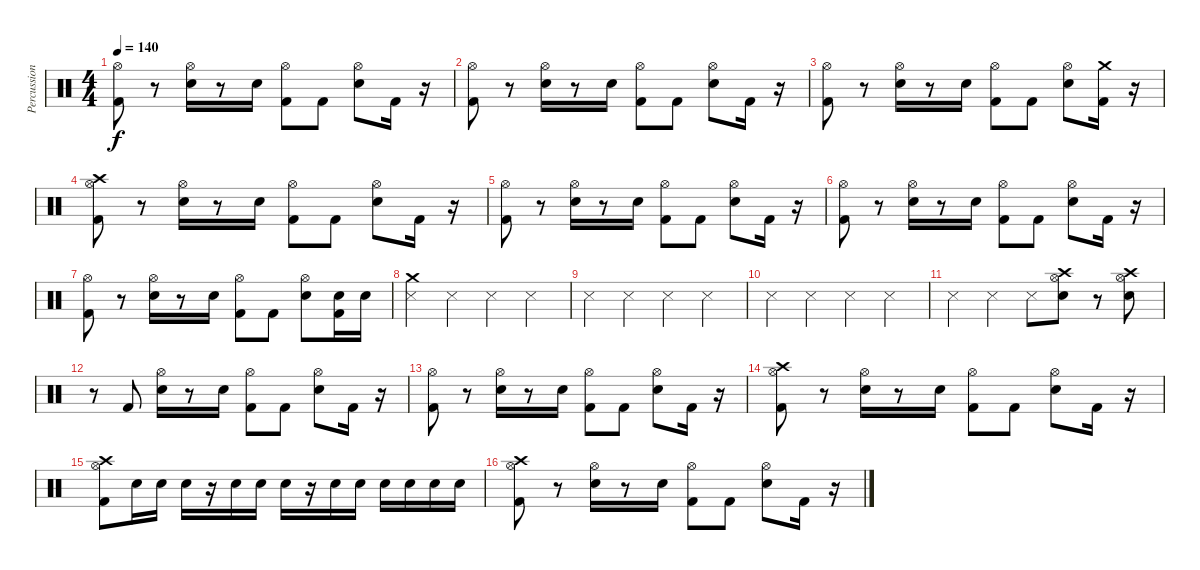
\track ("Percussion" "Percussion") {instrument percussion}
\staff {score}
\articulation defaults
\ts (4 4)
\tempo 140
\clef neutral
\ks c
("Hi-Hat (open)" "Kick (hit) 2").8{dy f} r.8 ("Hi-Hat (open)" "Electric Snare (hit)").16 r.8 "Electric Snare (hit)".16 ("Hi-Hat (open)" "Kick (hit) 2").8 "Kick (hit) 2".8 ("Hi-Hat (open)" "Electric Snare (hit)").8 "Kick (hit) 2".16 r.16 |
("Hi-Hat (open)" "Kick (hit) 2").8 r.8 ("Hi-Hat (open)" "Electric Snare (hit)").16 r.8 "Electric Snare (hit)".16 ("Hi-Hat (open)" "Kick (hit) 2").8 "Kick (hit) 2".8 ("Hi-Hat (open)" "Electric Snare (hit)").8 "Kick (hit) 2".16 r.16 |
("Hi-Hat (open)" "Kick (hit) 2").8 r.8 ("Hi-Hat (open)" "Electric Snare (hit)").16 r.8 "Electric Snare (hit)".16 ("Hi-Hat (open)" "Kick (hit) 2").8 "Kick (hit) 2".8 ("Hi-Hat (open)" "Electric Snare (hit)").8 ("Crash medium (hit)" "Kick (hit) 2").16 r.16 |
("Crash high (hit)" "Hi-Hat (open)" "Kick (hit) 2").8 r.8 ("Hi-Hat (open)" "Electric Snare (hit)").16 r.8 "Electric Snare (hit)".16 ("Hi-Hat (open)" "Kick (hit) 2").8 "Kick (hit) 2".8 ("Hi-Hat (open)" "Electric Snare (hit)").8 "Kick (hit) 2".16 r.16 |
("Hi-Hat (open)" "Kick (hit) 2").8 r.8 ("Hi-Hat (open)" "Electric Snare (hit)").16 r.8 "Electric Snare (hit)".16 ("Hi-Hat (open)" "Kick (hit) 2").8 "Kick (hit) 2".8 ("Hi-Hat (open)" "Electric Snare (hit)").8 "Kick (hit) 2".16 r.16 |
("Hi-Hat (open)" "Kick (hit) 2").8 r.8 ("Hi-Hat (open)" "Electric Snare (hit)").16 r.8 "Electric Snare (hit)".16 ("Hi-Hat (open)" "Kick (hit) 2").8 "Kick (hit) 2".8 ("Hi-Hat (open)" "Electric Snare (hit)").8 "Kick (hit) 2".16 r.16 |
("Hi-Hat (open)" "Kick (hit) 2").8 r.8 ("Hi-Hat (open)" "Electric Snare (hit)").16 r.8 "Electric Snare (hit)".16 ("Hi-Hat (open)" "Kick (hit) 2").8 "Kick (hit) 2".8 ("Hi-Hat (open)" "Electric Snare (hit)").8 ("Electric Snare (hit)" "Kick (hit) 2").16 "Electric Snare (hit)".16 |
("Crash medium (hit)" "Snare (side stick) 3").4 "Snare (side stick) 3".4 "Snare (side stick) 3".4 "Snare (side stick) 3".4 |
"Snare (side stick) 3".4 "Snare (side stick) 3".4 "Snare (side stick) 3".4 "Snare (side stick) 3".4 |
"Snare (side stick) 3".4 "Snare (side stick) 3".4 "Snare (side stick) 3".4 "Snare (side stick) 3".4 |
"Snare (side stick) 3".4 "Snare (side stick) 3".4 "Snare (side stick) 3".8 ("Crash high (hit)" "Hi-Hat (open)" "Electric Snare (hit)").8 r.8 ("Crash high (hit)" "Hi-Hat (open)" "Electric Snare (hit)").8 |
r.8 "Kick (hit) 2".8 ("Hi-Hat (open)" "Electric Snare (hit)").16 r.8 "Electric Snare (hit)".16 ("Hi-Hat (open)" "Kick (hit) 2").8 "Kick (hit) 2".8 ("Hi-Hat (open)" "Electric Snare (hit)").8 "Kick (hit) 2".16 r.16 |
("Hi-Hat (open)" "Kick (hit) 2").8 r.8 ("Hi-Hat (open)" "Electric Snare (hit)").16 r.8 "Electric Snare (hit)".16 ("Hi-Hat (open)" "Kick (hit) 2").8 "Kick (hit) 2".8 ("Hi-Hat (open)" "Electric Snare (hit)").8 "Kick (hit) 2".16 r.16 |
("Crash high (hit)" "Hi-Hat (open)" "Kick (hit) 2").8 r.8 ("Hi-Hat (open)" "Electric Snare (hit)").16 r.8 "Electric Snare (hit)".16 ("Hi-Hat (open)" "Kick (hit) 2").8 "Kick (hit) 2".8 ("Hi-Hat (open)" "Electric Snare (hit)").8 "Kick (hit) 2".16 r.16 |
("Crash high (hit)" "Hi-Hat (open)" "Kick (hit) 2").8 "Electric Snare (hit)".16 "Electric Snare (hit)".16 "Electric Snare (hit)".16 r.16 "Electric Snare (hit)".16 "Electric Snare (hit)".16 "Electric Snare (hit)".16 r.16 "Electric Snare (hit)".16 "Electric Snare (hit)".16 "Electric Snare (hit)".16 "Electric Snare (hit)".16 "Electric Snare (hit)".16 "Electric Snare (hit)".16 |
("Crash high (hit)" "Hi-Hat (open)" "Kick (hit) 2").8 r.8 ("Hi-Hat (open)" "Electric Snare (hit)").16 r.8 "Electric Snare (hit)".16 ("Hi-Hat (open)" "Kick (hit) 2").8 "Kick (hit) 2".8 ("Hi-Hat (open)" "Electric Snare (hit)").8 "Kick (hit) 2".16 r.16
